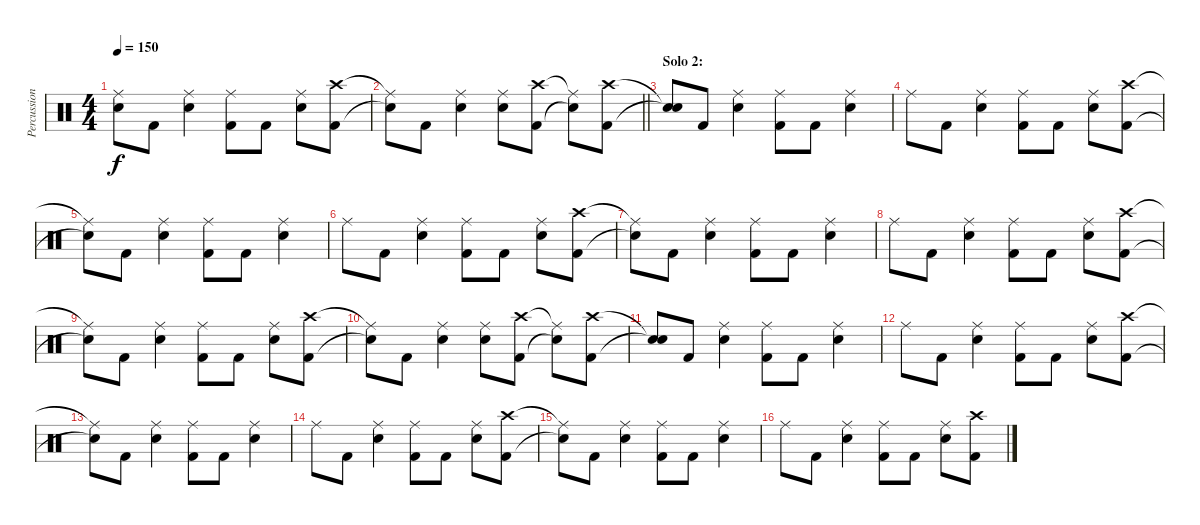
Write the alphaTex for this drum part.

\track ("Percussion" "Percussion") {instrument percussion}
\staff {score}
\articulation defaults
\ts (4 4)
\tempo 150
\clef neutral
\ks c
("Ride (middle)"{t} "Snare (hit)"{t}).8{dy f} "Kick (hit) 2".8 ("Ride (middle)" "Snare (hit) 2").4 ("Ride (middle)" "Kick (hit) 2").8 "Kick (hit) 2".8 ("Ride (middle)" "Snare (hit) 2").8 ("Crash high (hit)" "Kick (hit) 2").8 |
\barLineRight lightlight
("Ride (middle)"{t} "Snare (hit)"{t}).8 "Kick (hit) 2".8 ("Ride (middle)" "Snare (hit) 2").4 ("Ride (middle)" "Snare (hit) 2").8 ("Crash high (hit)" "Kick (hit) 2").8 ("Ride (middle)"{t} "Snare (hit)"{t}).8 ("Crash high (hit)" "Kick (hit) 2").8 |
\section ("" "Solo 2:")
("Snare (hit)"{t} "Snare (hit)"{t}).8 "Kick (hit) 2".8 ("Ride (middle)" "Snare (hit) 2").4 ("Ride (middle)" "Kick (hit) 2").8 "Kick (hit) 2".8 ("Ride (middle)" "Snare (hit) 2").4 |
"Ride (middle)".8 "Kick (hit) 2".8 ("Ride (middle)" "Snare (hit) 2").4 ("Ride (middle)" "Kick (hit) 2").8 "Kick (hit) 2".8 ("Ride (middle)" "Snare (hit) 2").8 ("Crash high (hit)" "Kick (hit) 2").8 |
("Ride (middle)"{t} "Snare (hit)"{t}).8 "Kick (hit) 2".8 ("Ride (middle)" "Snare (hit) 2").4 ("Ride (middle)" "Kick (hit) 2").8 "Kick (hit) 2".8 ("Ride (middle)" "Snare (hit) 2").4 |
"Ride (middle)".8 "Kick (hit) 2".8 ("Ride (middle)" "Snare (hit) 2").4 ("Ride (middle)" "Kick (hit) 2").8 "Kick (hit) 2".8 ("Ride (middle)" "Snare (hit) 2").8 ("Crash high (hit)" "Kick (hit) 2").8 |
("Ride (middle)"{t} "Snare (hit)"{t}).8 "Kick (hit) 2".8 ("Ride (middle)" "Snare (hit) 2").4 ("Ride (middle)" "Kick (hit) 2").8 "Kick (hit) 2".8 ("Ride (middle)" "Snare (hit) 2").4 |
"Ride (middle)".8 "Kick (hit) 2".8 ("Ride (middle)" "Snare (hit) 2").4 ("Ride (middle)" "Kick (hit) 2").8 "Kick (hit) 2".8 ("Ride (middle)" "Snare (hit) 2").8 ("Crash high (hit)" "Kick (hit) 2").8 |
("Ride (middle)"{t} "Snare (hit)"{t}).8 "Kick (hit) 2".8 ("Ride (middle)" "Snare (hit) 2").4 ("Ride (middle)" "Kick (hit) 2").8 "Kick (hit) 2".8 ("Ride (middle)" "Snare (hit) 2").8 ("Crash high (hit)" "Kick (hit) 2").8 |
("Ride (middle)"{t} "Snare (hit)"{t}).8 "Kick (hit) 2".8 ("Ride (middle)" "Snare (hit) 2").4 ("Ride (middle)" "Snare (hit) 2").8 ("Crash high (hit)" "Kick (hit) 2").8 ("Ride (middle)"{t} "Snare (hit)"{t}).8 ("Crash high (hit)" "Kick (hit) 2").8 |
("Snare (hit)"{t} "Snare (hit)"{t}).8 "Kick (hit) 2".8 ("Ride (middle)" "Snare (hit) 2").4 ("Ride (middle)" "Kick (hit) 2").8 "Kick (hit) 2".8 ("Ride (middle)" "Snare (hit) 2").4 |
"Ride (middle)".8 "Kick (hit) 2".8 ("Ride (middle)" "Snare (hit) 2").4 ("Ride (middle)" "Kick (hit) 2").8 "Kick (hit) 2".8 ("Ride (middle)" "Snare (hit) 2").8 ("Crash high (hit)" "Kick (hit) 2").8 |
("Ride (middle)"{t} "Snare (hit)"{t}).8 "Kick (hit) 2".8 ("Ride (middle)" "Snare (hit) 2").4 ("Ride (middle)" "Kick (hit) 2").8 "Kick (hit) 2".8 ("Ride (middle)" "Snare (hit) 2").4 |
"Ride (middle)".8 "Kick (hit) 2".8 ("Ride (middle)" "Snare (hit) 2").4 ("Ride (middle)" "Kick (hit) 2").8 "Kick (hit) 2".8 ("Ride (middle)" "Snare (hit) 2").8 ("Crash high (hit)" "Kick (hit) 2").8 |
("Ride (middle)"{t} "Snare (hit)"{t}).8 "Kick (hit) 2".8 ("Ride (middle)" "Snare (hit) 2").4 ("Ride (middle)" "Kick (hit) 2").8 "Kick (hit) 2".8 ("Ride (middle)" "Snare (hit) 2").4 |
"Ride (middle)".8 "Kick (hit) 2".8 ("Ride (middle)" "Snare (hit) 2").4 ("Ride (middle)" "Kick (hit) 2").8 "Kick (hit) 2".8 ("Ride (middle)" "Snare (hit) 2").8 ("Crash high (hit)" "Kick (hit) 2").8
